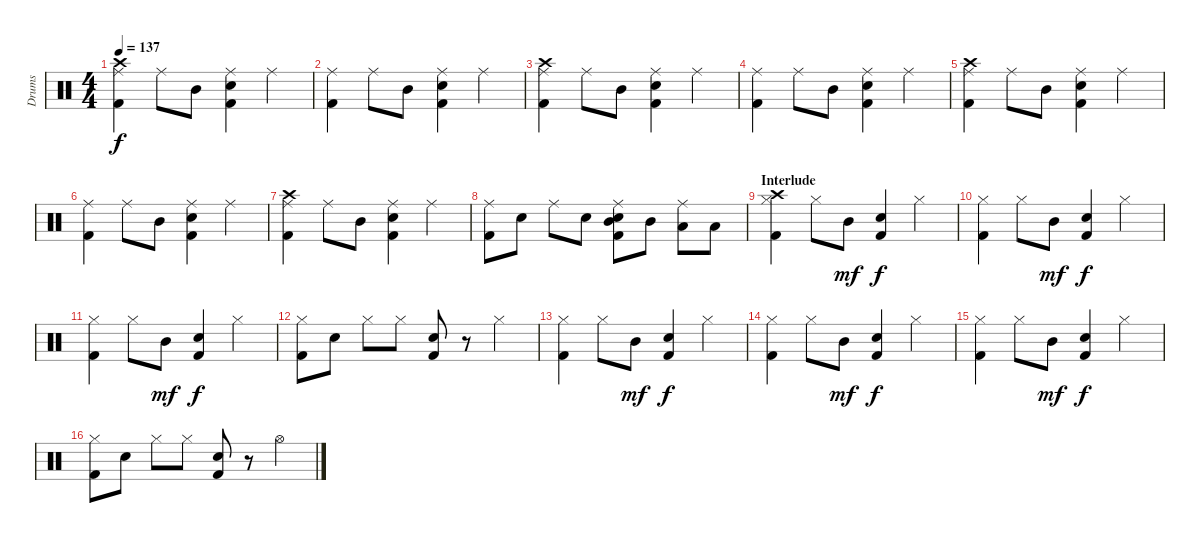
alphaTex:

\track ("Drums" "Drums") {instrument percussion}
\staff {score}
\articulation defaults
\ts (4 4)
\tempo 137
\clef neutral
\ks c
("Crash high (hit)" "Ride (middle)" "Kick (hit) 2").4{dy f} "Ride (middle)".8 "Mid Tom (hit)".8 ("Ride (middle)" "Electric Snare (hit)" "Kick (hit) 2").4 "Ride (middle)".4 |
("Ride (middle)" "Kick (hit) 2").4 "Ride (middle)".8 "Mid Tom (hit)".8 ("Ride (middle)" "Electric Snare (hit)" "Kick (hit) 2").4 "Ride (middle)".4 |
("Crash high (hit)" "Ride (middle)" "Kick (hit) 2").4 "Ride (middle)".8 "Mid Tom (hit)".8 ("Ride (middle)" "Electric Snare (hit)" "Kick (hit) 2").4 "Ride (middle)".4 |
("Ride (middle)" "Kick (hit) 2").4 "Ride (middle)".8 "Mid Tom (hit)".8 ("Ride (middle)" "Electric Snare (hit)" "Kick (hit) 2").4 "Ride (middle)".4 |
("Crash high (hit)" "Ride (middle)" "Kick (hit) 2").4 "Ride (middle)".8 "Mid Tom (hit)".8 ("Ride (middle)" "Electric Snare (hit)" "Kick (hit) 2").4 "Ride (middle)".4 |
("Ride (middle)" "Kick (hit) 2").4 "Ride (middle)".8 "Mid Tom (hit)".8 ("Ride (middle)" "Electric Snare (hit)" "Kick (hit) 2").4 "Ride (middle)".4 |
("Crash high (hit)" "Ride (middle)" "Kick (hit) 2").4 "Ride (middle)".8 "Mid Tom (hit)".8 ("Ride (middle)" "Electric Snare (hit)" "Kick (hit) 2").4 "Ride (middle)".4 |
("Ride (middle)" "Kick (hit) 2").8 "Electric Snare (hit)".8 "Ride (middle)".8 "Electric Snare (hit)".8 ("Ride (middle)" "Mid Tom (hit)" "Electric Snare (hit)" "Kick (hit) 2").8 "Mid Tom (hit)".8 ("Ride (middle)" "Low Tom (hit)").8 "Low Tom (hit)".8 |
\section ("" "Interlude")
("Crash high (hit)" "Hi-Hat (closed)" "Kick (hit) 2").4 "Hi-Hat (closed)".8 "Mid Tom (hit)".8{dy mf} ("Electric Snare (hit)" "Kick (hit) 2").4{dy f} "Hi-Hat (closed)".4 |
("Hi-Hat (closed)" "Kick (hit) 2").4 "Hi-Hat (closed)".8 "Mid Tom (hit)".8{dy mf} ("Electric Snare (hit)" "Kick (hit) 2").4{dy f} "Hi-Hat (closed)".4 |
("Hi-Hat (closed)" "Kick (hit) 2").4 "Hi-Hat (closed)".8 "Mid Tom (hit)".8{dy mf} ("Electric Snare (hit)" "Kick (hit) 2").4{dy f} "Hi-Hat (closed)".4 |
("Hi-Hat (closed)" "Kick (hit) 2").8 "Electric Snare (hit)".8 "Hi-Hat (closed)".8 "Hi-Hat (closed)".8 ("Electric Snare (hit)" "Kick (hit) 2").8 r.8 "Hi-Hat (closed)".4 |
("Hi-Hat (closed)" "Kick (hit) 2").4 "Hi-Hat (closed)".8 "Mid Tom (hit)".8{dy mf} ("Electric Snare (hit)" "Kick (hit) 2").4{dy f} "Hi-Hat (closed)".4 |
("Hi-Hat (closed)" "Kick (hit) 2").4 "Hi-Hat (closed)".8 "Mid Tom (hit)".8{dy mf} ("Electric Snare (hit)" "Kick (hit) 2").4{dy f} "Hi-Hat (closed)".4 |
("Hi-Hat (closed)" "Kick (hit) 2").4 "Hi-Hat (closed)".8 "Mid Tom (hit)".8{dy mf} ("Electric Snare (hit)" "Kick (hit) 2").4{dy f} "Hi-Hat (closed)".4 |
("Hi-Hat (closed)" "Kick (hit) 2").8 "Electric Snare (hit)".8 "Hi-Hat (closed)".8 "Hi-Hat (closed)".8 ("Electric Snare (hit)" "Kick (hit) 2").8 r.8 "Hi-Hat (open)".4
